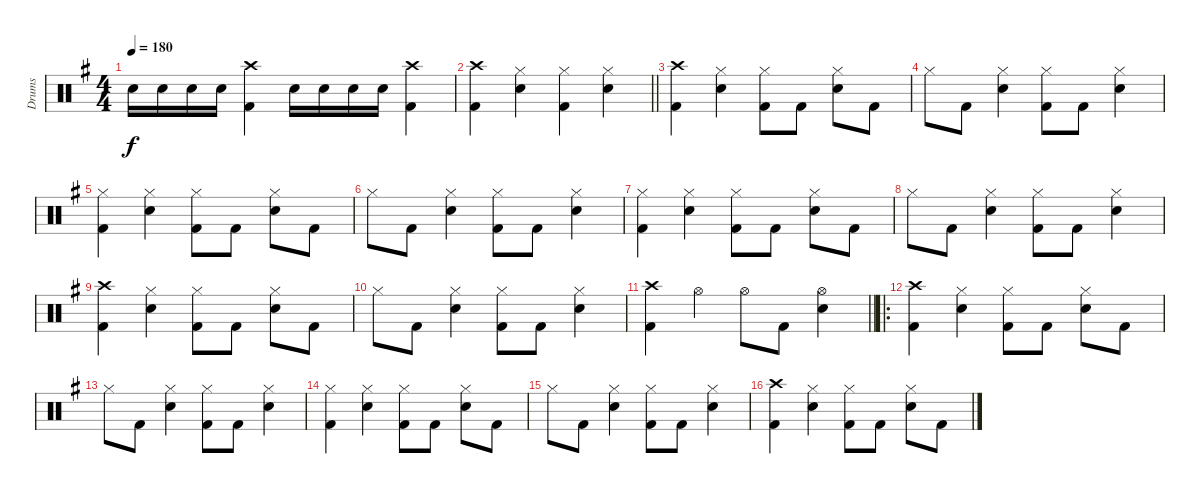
\track ("Drums" "Drums") {instrument percussion}
\staff {score}
\articulation defaults
\ts (4 4)
\tempo 180
\clef neutral
\ks g "Snare (hit) 2".16{dy f} "Snare (hit) 2".16 "Snare (hit) 2".16 "Snare (hit) 2".16
("Crash high (hit)" "Kick (hit) 2").4 "Snare (hit) 2".16 "Snare (hit) 2".16 "Snare (hit) 2".16 "Snare (hit) 2".16 ("Crash high (hit)" "Kick (hit) 2").4 |
\barLineRight lightlight
("Crash high (hit)" "Kick (hit) 2").4 ("Hi-Hat (closed)" "Snare (hit) 2").4 ("Hi-Hat (closed)" "Kick (hit) 2").4 ("Hi-Hat (closed)" "Snare (hit) 2").4 |
("Crash high (hit)" "Kick (hit) 2").4 ("Hi-Hat (closed)" "Snare (hit) 2").4 ("Hi-Hat (closed)" "Kick (hit) 2").8 "Kick (hit) 2".8 ("Hi-Hat (closed)" "Snare (hit) 2").8 "Kick (hit) 2".8 |
"Hi-Hat (closed)".8 "Kick (hit) 2".8 ("Hi-Hat (closed)" "Snare (hit) 2").4 ("Hi-Hat (closed)" "Kick (hit) 2").8 "Kick (hit) 2".8 ("Hi-Hat (closed)" "Snare (hit) 2").4 |
("Hi-Hat (closed)" "Kick (hit) 2").4 ("Hi-Hat (closed)" "Snare (hit) 2").4 ("Hi-Hat (closed)" "Kick (hit) 2").8 "Kick (hit) 2".8 ("Hi-Hat (closed)" "Snare (hit) 2").8 "Kick (hit) 2".8 |
"Hi-Hat (closed)".8 "Kick (hit) 2".8 ("Hi-Hat (closed)" "Snare (hit) 2").4 ("Hi-Hat (closed)" "Kick (hit) 2").8 "Kick (hit) 2".8 ("Hi-Hat (closed)" "Snare (hit) 2").4 |
("Hi-Hat (closed)" "Kick (hit) 2").4 ("Hi-Hat (closed)" "Snare (hit) 2").4 ("Hi-Hat (closed)" "Kick (hit) 2").8 "Kick (hit) 2".8 ("Hi-Hat (closed)" "Snare (hit) 2").8 "Kick (hit) 2".8 |
"Hi-Hat (closed)".8 "Kick (hit) 2".8 ("Hi-Hat (closed)" "Snare (hit) 2").4 ("Hi-Hat (closed)" "Kick (hit) 2").8 "Kick (hit) 2".8 ("Hi-Hat (closed)" "Snare (hit) 2").4 |
("Crash high (hit)" "Kick (hit) 2").4 ("Hi-Hat (closed)" "Snare (hit) 2").4 ("Hi-Hat (closed)" "Kick (hit) 2").8 "Kick (hit) 2".8 ("Hi-Hat (closed)" "Snare (hit) 2").8 "Kick (hit) 2".8 |
"Hi-Hat (closed)".8 "Kick (hit) 2".8 ("Hi-Hat (closed)" "Snare (hit) 2").4 ("Hi-Hat (closed)" "Kick (hit) 2").8 "Kick (hit) 2".8 ("Hi-Hat (closed)" "Snare (hit) 2").4 |
\barLineRight lightlight
("Crash high (hit)" "Kick (hit) 2").4 "Hi-Hat (open)".4 "Hi-Hat (open)".8 "Kick (hit) 2".8 ("Hi-Hat (open)" "Snare (hit) 2").4 |
\ro
("Crash high (hit)" "Kick (hit) 2").4 ("Hi-Hat (closed)" "Snare (hit) 2").4 ("Hi-Hat (closed)" "Kick (hit) 2").8 "Kick (hit) 2".8 ("Hi-Hat (closed)" "Snare (hit) 2").8 "Kick (hit) 2".8 |
"Hi-Hat (closed)".8 "Kick (hit) 2".8 ("Hi-Hat (closed)" "Snare (hit) 2").4 ("Hi-Hat (closed)" "Kick (hit) 2").8 "Kick (hit) 2".8 ("Hi-Hat (closed)" "Snare (hit) 2").4 |
("Hi-Hat (closed)" "Kick (hit) 2").4 ("Hi-Hat (closed)" "Snare (hit) 2").4 ("Hi-Hat (closed)" "Kick (hit) 2").8 "Kick (hit) 2".8 ("Hi-Hat (closed)" "Snare (hit) 2").8 "Kick (hit) 2".8 |
"Hi-Hat (closed)".8 "Kick (hit) 2".8 ("Hi-Hat (closed)" "Snare (hit) 2").4 ("Hi-Hat (closed)" "Kick (hit) 2").8 "Kick (hit) 2".8 ("Hi-Hat (closed)" "Snare (hit) 2").4 |
("Crash high (hit)" "Kick (hit) 2").4 ("Hi-Hat (closed)" "Snare (hit) 2").4 ("Hi-Hat (closed)" "Kick (hit) 2").8 "Kick (hit) 2".8 ("Hi-Hat (closed)" "Snare (hit) 2").8 "Kick (hit) 2".8
